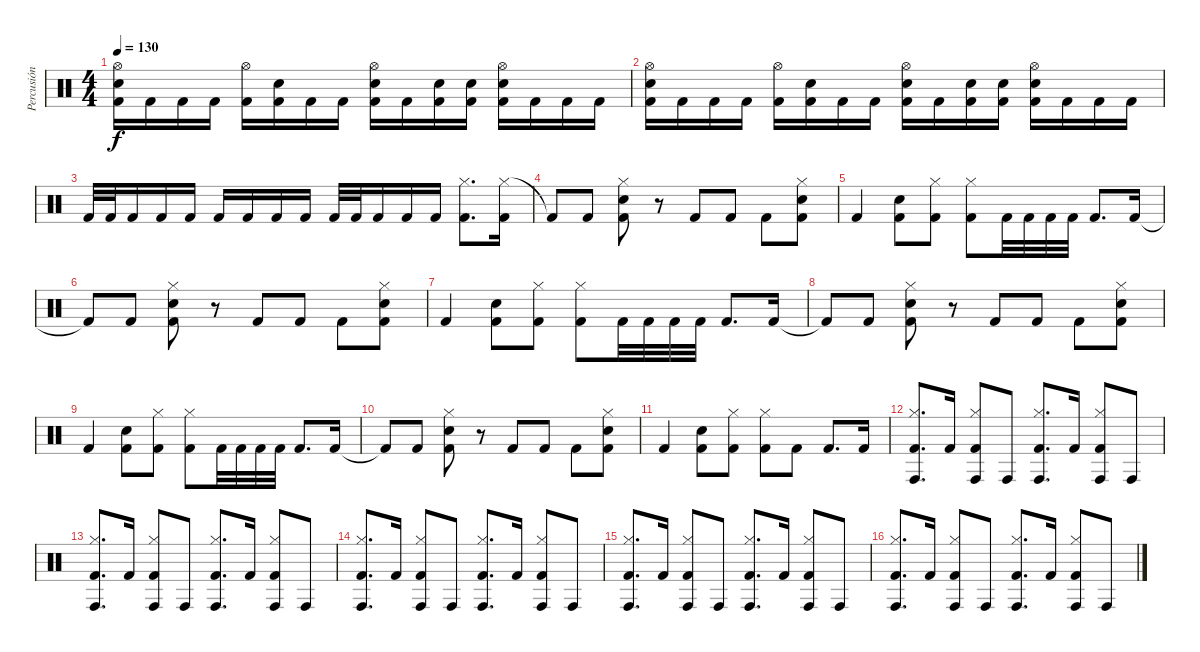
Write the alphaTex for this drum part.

\track ("Percusión" "Percusión") {instrument percussion}
\staff {score}
\articulation defaults
\ts (4 4)
\tempo 130
\clef neutral
\ks c
("Hi-Hat (open)" "Electric Snare (hit)" "Kick (hit) 2").16{dy f} "Kick (hit) 2".16 "Kick (hit) 2".16 "Kick (hit) 2".16 ("Hi-Hat (open)" "Kick (hit) 2").16 ("Electric Snare (hit)" "Kick (hit) 2").16 "Kick (hit) 2".16 "Kick (hit) 2".16 ("Hi-Hat (open)" "Electric Snare (hit)" "Kick (hit) 2").16 "Kick (hit) 2".16 ("Electric Snare (hit)" "Kick (hit) 2").16 ("Electric Snare (hit)" "Kick (hit) 2").16 ("Hi-Hat (open)" "Electric Snare (hit)" "Kick (hit) 2").16 "Kick (hit) 2".16 "Kick (hit) 2".16 "Kick (hit) 2".16 |
("Hi-Hat (open)" "Electric Snare (hit)" "Kick (hit) 2").16 "Kick (hit) 2".16 "Kick (hit) 2".16 "Kick (hit) 2".16 ("Hi-Hat (open)" "Kick (hit) 2").16 ("Electric Snare (hit)" "Kick (hit) 2").16 "Kick (hit) 2".16 "Kick (hit) 2".16 ("Hi-Hat (open)" "Electric Snare (hit)" "Kick (hit) 2").16 "Kick (hit) 2".16 ("Electric Snare (hit)" "Kick (hit) 2").16 ("Electric Snare (hit)" "Kick (hit) 2").16 ("Hi-Hat (open)" "Electric Snare (hit)" "Kick (hit) 2").16 "Kick (hit) 2".16 "Kick (hit) 2".16 "Kick (hit) 2".16 |
"Kick (hit) 2".32 "Kick (hit) 2".32 "Kick (hit) 2".16 "Kick (hit) 2".16 "Kick (hit) 2".16 "Kick (hit) 2".16 "Kick (hit) 2".16 "Kick (hit) 2".16 "Kick (hit) 2".16 "Kick (hit) 2".32 "Kick (hit) 2".32 "Kick (hit) 2".16 "Kick (hit) 2".16 "Kick (hit) 2".16 ("Hi-Hat (closed)" "Kick (hit) 2").8{d} ("Hi-Hat (closed)" "Kick (hit) 2").16 |
"Kick (hit) 2"{t}.8 "Kick (hit) 2".8 ("Hi-Hat (closed)" "Electric Snare (hit)" "Kick (hit) 2").8 r.8 "Kick (hit) 2".8 "Kick (hit) 2".8 "Kick (hit) 2".8 ("Hi-Hat (closed)" "Electric Snare (hit)" "Kick (hit) 2").8 |
"Kick (hit) 2".4 ("Electric Snare (hit)" "Kick (hit) 2").8 ("Hi-Hat (closed)" "Kick (hit) 2").8 ("Hi-Hat (closed)" "Kick (hit) 2").8 "Kick (hit) 2".32 "Kick (hit) 2".32 "Kick (hit) 2".32 "Kick (hit) 2".32 "Kick (hit) 2".8{d} "Kick (hit) 2".16 |
"Kick (hit) 2"{t}.8 "Kick (hit) 2".8 ("Hi-Hat (closed)" "Electric Snare (hit)" "Kick (hit) 2").8 r.8 "Kick (hit) 2".8 "Kick (hit) 2".8 "Kick (hit) 2".8 ("Hi-Hat (closed)" "Electric Snare (hit)" "Kick (hit) 2").8 |
"Kick (hit) 2".4 ("Electric Snare (hit)" "Kick (hit) 2").8 ("Hi-Hat (closed)" "Kick (hit) 2").8 ("Hi-Hat (closed)" "Kick (hit) 2").8 "Kick (hit) 2".32 "Kick (hit) 2".32 "Kick (hit) 2".32 "Kick (hit) 2".32 "Kick (hit) 2".8{d} "Kick (hit) 2".16 |
"Kick (hit) 2"{t}.8 "Kick (hit) 2".8 ("Hi-Hat (closed)" "Electric Snare (hit)" "Kick (hit) 2").8 r.8 "Kick (hit) 2".8 "Kick (hit) 2".8 "Kick (hit) 2".8 ("Hi-Hat (closed)" "Electric Snare (hit)" "Kick (hit) 2").8 |
"Kick (hit) 2".4 ("Electric Snare (hit)" "Kick (hit) 2").8 ("Hi-Hat (closed)" "Kick (hit) 2").8 ("Hi-Hat (closed)" "Kick (hit) 2").8 "Kick (hit) 2".32 "Kick (hit) 2".32 "Kick (hit) 2".32 "Kick (hit) 2".32 "Kick (hit) 2".8{d} "Kick (hit) 2".16 |
"Kick (hit) 2"{t}.8 "Kick (hit) 2".8 ("Hi-Hat (closed)" "Electric Snare (hit)" "Kick (hit) 2").8 r.8 "Kick (hit) 2".8 "Kick (hit) 2".8 "Kick (hit) 2".8 ("Hi-Hat (closed)" "Electric Snare (hit)" "Kick (hit) 2").8 |
"Kick (hit) 2".4 ("Electric Snare (hit)" "Kick (hit) 2").8 ("Hi-Hat (closed)" "Kick (hit) 2").8 ("Hi-Hat (closed)" "Kick (hit) 2").8 "Kick (hit) 2".8 "Kick (hit) 2".8{d} "Kick (hit) 2".16 |
("Hi-Hat (closed)" "Kick (hit) 2" "Conga high (hit)").8{d} "Kick (hit) 2".16 ("Hi-Hat (closed)" "Kick (hit) 2" "Conga high (hit)").8 "Conga high (hit)".8 ("Hi-Hat (closed)" "Kick (hit) 2" "Conga high (hit)").8{d} "Kick (hit) 2".16 ("Hi-Hat (closed)" "Kick (hit) 2" "Conga high (hit)").8 "Conga high (hit)".8 |
("Hi-Hat (closed)" "Kick (hit) 2" "Conga high (hit)").8{d} "Kick (hit) 2".16 ("Hi-Hat (closed)" "Kick (hit) 2" "Conga high (hit)").8 "Conga high (hit)".8 ("Hi-Hat (closed)" "Kick (hit) 2" "Conga high (hit)").8{d} "Kick (hit) 2".16 ("Hi-Hat (closed)" "Kick (hit) 2" "Conga high (hit)").8 "Conga high (hit)".8 |
("Hi-Hat (closed)" "Kick (hit) 2" "Conga high (hit)").8{d} "Kick (hit) 2".16 ("Hi-Hat (closed)" "Kick (hit) 2" "Conga high (hit)").8 "Conga high (hit)".8 ("Hi-Hat (closed)" "Kick (hit) 2" "Conga high (hit)").8{d} "Kick (hit) 2".16 ("Hi-Hat (closed)" "Kick (hit) 2" "Conga high (hit)").8 "Conga high (hit)".8 |
("Hi-Hat (closed)" "Kick (hit) 2" "Conga high (hit)").8{d} "Kick (hit) 2".16 ("Hi-Hat (closed)" "Kick (hit) 2" "Conga high (hit)").8 "Conga high (hit)".8 ("Hi-Hat (closed)" "Kick (hit) 2" "Conga high (hit)").8{d} "Kick (hit) 2".16 ("Hi-Hat (closed)" "Kick (hit) 2" "Conga high (hit)").8 "Conga high (hit)".8 |
("Hi-Hat (closed)" "Kick (hit) 2" "Conga high (hit)").8{d} "Kick (hit) 2".16 ("Hi-Hat (closed)" "Kick (hit) 2" "Conga high (hit)").8 "Conga high (hit)".8 ("Hi-Hat (closed)" "Kick (hit) 2" "Conga high (hit)").8{d} "Kick (hit) 2".16 ("Hi-Hat (closed)" "Kick (hit) 2" "Conga high (hit)").8 "Conga high (hit)".8
